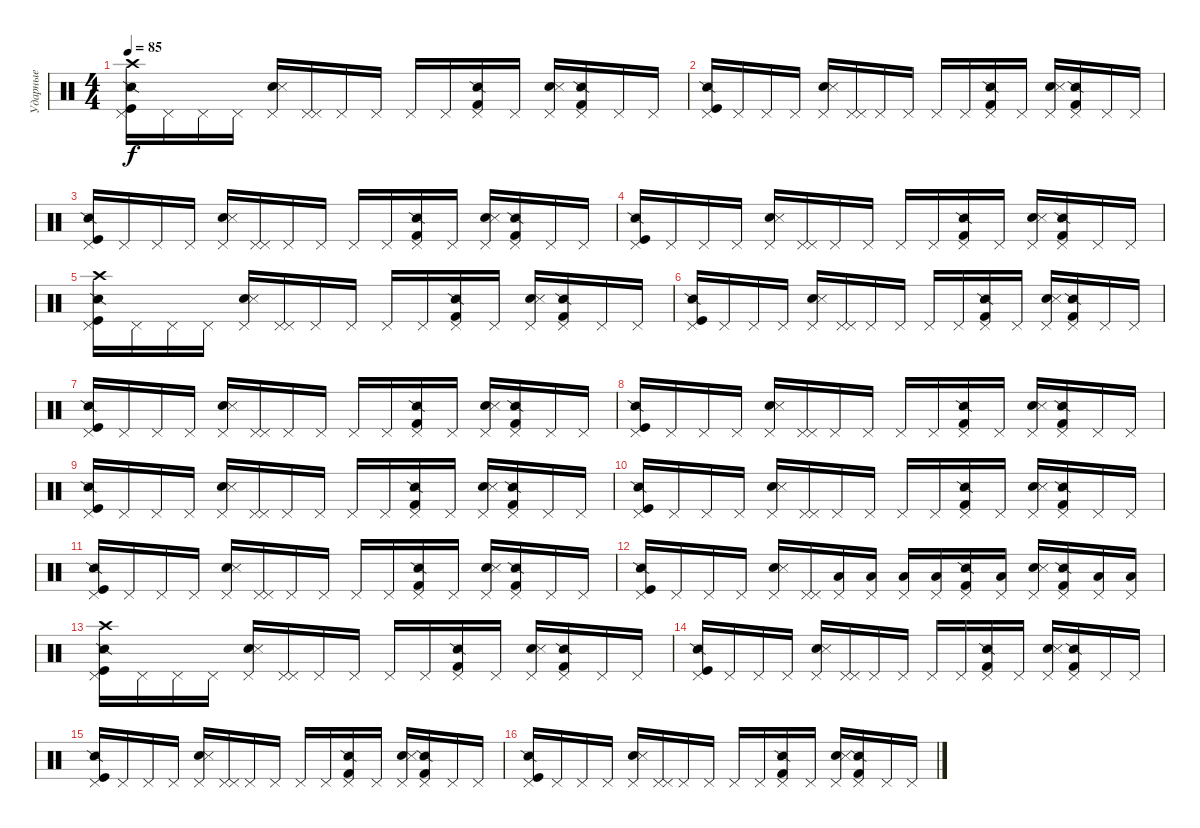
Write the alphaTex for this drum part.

\track ("Ударные" "Ударные") {instrument percussion}
\staff {score}
\articulation defaults
\ts (4 4)
\tempo 85
\clef neutral
\ks c
("Crash high (hit)" "Kick (hit)" "Pedal Hi-Hat (hit)" "Snare (side stick) 2").16{dy f} "Pedal Hi-Hat (hit)".16 "Pedal Hi-Hat (hit)".16 "Pedal Hi-Hat (hit)".16 ("Snare (hit) 2" "Pedal Hi-Hat (hit)" "Snare (side stick) 3").16 ("Pedal Hi-Hat (hit)" "Pedal Hi-Hat (hit)").16 "Pedal Hi-Hat (hit)".16 "Pedal Hi-Hat (hit)".16 "Pedal Hi-Hat (hit)".16 "Pedal Hi-Hat (hit)".16 ("Kick (hit) 2" "Pedal Hi-Hat (hit)" "Snare (side stick) 2").16 "Pedal Hi-Hat (hit)".16 ("Snare (hit) 2" "Pedal Hi-Hat (hit)" "Snare (side stick) 3").16 ("Kick (hit) 2" "Pedal Hi-Hat (hit)" "Snare (side stick) 2").16 "Pedal Hi-Hat (hit)".16 "Pedal Hi-Hat (hit)".16 |
("Kick (hit)" "Pedal Hi-Hat (hit)" "Snare (side stick) 2").16 "Pedal Hi-Hat (hit)".16 "Pedal Hi-Hat (hit)".16 "Pedal Hi-Hat (hit)".16 ("Snare (hit) 2" "Pedal Hi-Hat (hit)" "Snare (side stick) 3").16 ("Pedal Hi-Hat (hit)" "Pedal Hi-Hat (hit)").16 "Pedal Hi-Hat (hit)".16 "Pedal Hi-Hat (hit)".16 "Pedal Hi-Hat (hit)".16 "Pedal Hi-Hat (hit)".16 ("Kick (hit) 2" "Pedal Hi-Hat (hit)" "Snare (side stick) 2").16 "Pedal Hi-Hat (hit)".16 ("Snare (hit) 2" "Pedal Hi-Hat (hit)" "Snare (side stick) 3").16 ("Kick (hit) 2" "Pedal Hi-Hat (hit)" "Snare (side stick) 2").16 "Pedal Hi-Hat (hit)".16 "Pedal Hi-Hat (hit)".16 |
("Kick (hit)" "Pedal Hi-Hat (hit)" "Snare (side stick) 2").16 "Pedal Hi-Hat (hit)".16 "Pedal Hi-Hat (hit)".16 "Pedal Hi-Hat (hit)".16 ("Snare (hit) 2" "Pedal Hi-Hat (hit)" "Snare (side stick) 3").16 ("Pedal Hi-Hat (hit)" "Pedal Hi-Hat (hit)").16 "Pedal Hi-Hat (hit)".16 "Pedal Hi-Hat (hit)".16 "Pedal Hi-Hat (hit)".16 "Pedal Hi-Hat (hit)".16 ("Kick (hit) 2" "Pedal Hi-Hat (hit)" "Snare (side stick) 2").16 "Pedal Hi-Hat (hit)".16 ("Snare (hit) 2" "Pedal Hi-Hat (hit)" "Snare (side stick) 3").16 ("Kick (hit) 2" "Pedal Hi-Hat (hit)" "Snare (side stick) 2").16 "Pedal Hi-Hat (hit)".16 "Pedal Hi-Hat (hit)".16 |
("Kick (hit)" "Pedal Hi-Hat (hit)" "Snare (side stick) 2").16 "Pedal Hi-Hat (hit)".16 "Pedal Hi-Hat (hit)".16 "Pedal Hi-Hat (hit)".16 ("Snare (hit) 2" "Pedal Hi-Hat (hit)" "Snare (side stick) 3").16 ("Pedal Hi-Hat (hit)" "Pedal Hi-Hat (hit)").16 "Pedal Hi-Hat (hit)".16 "Pedal Hi-Hat (hit)".16 "Pedal Hi-Hat (hit)".16 "Pedal Hi-Hat (hit)".16 ("Kick (hit) 2" "Pedal Hi-Hat (hit)" "Snare (side stick) 2").16 "Pedal Hi-Hat (hit)".16 ("Snare (hit) 2" "Pedal Hi-Hat (hit)" "Snare (side stick) 3").16 ("Kick (hit) 2" "Pedal Hi-Hat (hit)" "Snare (side stick) 2").16 "Pedal Hi-Hat (hit)".16 "Pedal Hi-Hat (hit)".16 |
("Crash high (hit)" "Kick (hit)" "Pedal Hi-Hat (hit)" "Snare (side stick) 2").16 "Pedal Hi-Hat (hit)".16 "Pedal Hi-Hat (hit)".16 "Pedal Hi-Hat (hit)".16 ("Snare (hit) 2" "Pedal Hi-Hat (hit)" "Snare (side stick) 3").16 ("Pedal Hi-Hat (hit)" "Pedal Hi-Hat (hit)").16 "Pedal Hi-Hat (hit)".16 "Pedal Hi-Hat (hit)".16 "Pedal Hi-Hat (hit)".16 "Pedal Hi-Hat (hit)".16 ("Kick (hit) 2" "Pedal Hi-Hat (hit)" "Snare (side stick) 2").16 "Pedal Hi-Hat (hit)".16 ("Snare (hit) 2" "Pedal Hi-Hat (hit)" "Snare (side stick) 3").16 ("Kick (hit) 2" "Pedal Hi-Hat (hit)" "Snare (side stick) 2").16 "Pedal Hi-Hat (hit)".16 "Pedal Hi-Hat (hit)".16 |
("Kick (hit)" "Pedal Hi-Hat (hit)" "Snare (side stick) 2").16 "Pedal Hi-Hat (hit)".16 "Pedal Hi-Hat (hit)".16 "Pedal Hi-Hat (hit)".16 ("Snare (hit) 2" "Pedal Hi-Hat (hit)" "Snare (side stick) 3").16 ("Pedal Hi-Hat (hit)" "Pedal Hi-Hat (hit)").16 "Pedal Hi-Hat (hit)".16 "Pedal Hi-Hat (hit)".16 "Pedal Hi-Hat (hit)".16 "Pedal Hi-Hat (hit)".16 ("Kick (hit) 2" "Pedal Hi-Hat (hit)" "Snare (side stick) 2").16 "Pedal Hi-Hat (hit)".16 ("Snare (hit) 2" "Pedal Hi-Hat (hit)" "Snare (side stick) 3").16 ("Kick (hit) 2" "Pedal Hi-Hat (hit)" "Snare (side stick) 2").16 "Pedal Hi-Hat (hit)".16 "Pedal Hi-Hat (hit)".16 |
("Kick (hit)" "Pedal Hi-Hat (hit)" "Snare (side stick) 2").16 "Pedal Hi-Hat (hit)".16 "Pedal Hi-Hat (hit)".16 "Pedal Hi-Hat (hit)".16 ("Snare (hit) 2" "Pedal Hi-Hat (hit)" "Snare (side stick) 3").16 ("Pedal Hi-Hat (hit)" "Pedal Hi-Hat (hit)").16 "Pedal Hi-Hat (hit)".16 "Pedal Hi-Hat (hit)".16 "Pedal Hi-Hat (hit)".16 "Pedal Hi-Hat (hit)".16 ("Kick (hit) 2" "Pedal Hi-Hat (hit)" "Snare (side stick) 2").16 "Pedal Hi-Hat (hit)".16 ("Snare (hit) 2" "Pedal Hi-Hat (hit)" "Snare (side stick) 3").16 ("Kick (hit) 2" "Pedal Hi-Hat (hit)" "Snare (side stick) 2").16 "Pedal Hi-Hat (hit)".16 "Pedal Hi-Hat (hit)".16 |
("Kick (hit)" "Pedal Hi-Hat (hit)" "Snare (side stick) 2").16 "Pedal Hi-Hat (hit)".16 "Pedal Hi-Hat (hit)".16 "Pedal Hi-Hat (hit)".16 ("Snare (hit) 2" "Pedal Hi-Hat (hit)" "Snare (side stick) 3").16 ("Pedal Hi-Hat (hit)" "Pedal Hi-Hat (hit)").16 "Pedal Hi-Hat (hit)".16 "Pedal Hi-Hat (hit)".16 "Pedal Hi-Hat (hit)".16 "Pedal Hi-Hat (hit)".16 ("Kick (hit) 2" "Pedal Hi-Hat (hit)" "Snare (side stick) 2").16 "Pedal Hi-Hat (hit)".16 ("Snare (hit) 2" "Pedal Hi-Hat (hit)" "Snare (side stick) 3").16 ("Kick (hit) 2" "Pedal Hi-Hat (hit)" "Snare (side stick) 2").16 "Pedal Hi-Hat (hit)".16 "Pedal Hi-Hat (hit)".16 |
("Kick (hit)" "Pedal Hi-Hat (hit)" "Snare (side stick) 2").16 "Pedal Hi-Hat (hit)".16 "Pedal Hi-Hat (hit)".16 "Pedal Hi-Hat (hit)".16 ("Snare (hit) 2" "Pedal Hi-Hat (hit)" "Snare (side stick) 3").16 ("Pedal Hi-Hat (hit)" "Pedal Hi-Hat (hit)").16 "Pedal Hi-Hat (hit)".16 "Pedal Hi-Hat (hit)".16 "Pedal Hi-Hat (hit)".16 "Pedal Hi-Hat (hit)".16 ("Kick (hit) 2" "Pedal Hi-Hat (hit)" "Snare (side stick) 2").16 "Pedal Hi-Hat (hit)".16 ("Snare (hit) 2" "Pedal Hi-Hat (hit)" "Snare (side stick) 3").16 ("Kick (hit) 2" "Pedal Hi-Hat (hit)" "Snare (side stick) 2").16 "Pedal Hi-Hat (hit)".16 "Pedal Hi-Hat (hit)".16 |
("Kick (hit)" "Pedal Hi-Hat (hit)" "Snare (side stick) 2").16 "Pedal Hi-Hat (hit)".16 "Pedal Hi-Hat (hit)".16 "Pedal Hi-Hat (hit)".16 ("Snare (hit) 2" "Pedal Hi-Hat (hit)" "Snare (side stick) 3").16 ("Pedal Hi-Hat (hit)" "Pedal Hi-Hat (hit)").16 "Pedal Hi-Hat (hit)".16 "Pedal Hi-Hat (hit)".16 "Pedal Hi-Hat (hit)".16 "Pedal Hi-Hat (hit)".16 ("Kick (hit) 2" "Pedal Hi-Hat (hit)" "Snare (side stick) 2").16 "Pedal Hi-Hat (hit)".16 ("Snare (hit) 2" "Pedal Hi-Hat (hit)" "Snare (side stick) 3").16 ("Kick (hit) 2" "Pedal Hi-Hat (hit)" "Snare (side stick) 2").16 "Pedal Hi-Hat (hit)".16 "Pedal Hi-Hat (hit)".16 |
("Kick (hit)" "Pedal Hi-Hat (hit)" "Snare (side stick) 2").16 "Pedal Hi-Hat (hit)".16 "Pedal Hi-Hat (hit)".16 "Pedal Hi-Hat (hit)".16 ("Snare (hit) 2" "Pedal Hi-Hat (hit)" "Snare (side stick) 3").16 ("Pedal Hi-Hat (hit)" "Pedal Hi-Hat (hit)").16 "Pedal Hi-Hat (hit)".16 "Pedal Hi-Hat (hit)".16 "Pedal Hi-Hat (hit)".16 "Pedal Hi-Hat (hit)".16 ("Kick (hit) 2" "Pedal Hi-Hat (hit)" "Snare (side stick) 2").16 "Pedal Hi-Hat (hit)".16 ("Snare (hit) 2" "Pedal Hi-Hat (hit)" "Snare (side stick) 3").16 ("Kick (hit) 2" "Pedal Hi-Hat (hit)" "Snare (side stick) 2").16 "Pedal Hi-Hat (hit)".16 "Pedal Hi-Hat (hit)".16 |
("Kick (hit)" "Pedal Hi-Hat (hit)" "Snare (side stick) 2").16 "Pedal Hi-Hat (hit)".16 "Pedal Hi-Hat (hit)".16 "Pedal Hi-Hat (hit)".16 ("Snare (hit) 2" "Pedal Hi-Hat (hit)" "Snare (side stick) 3").16 ("Pedal Hi-Hat (hit)" "Pedal Hi-Hat (hit)").16 ("Low Tom (hit)" "Pedal Hi-Hat (hit)").16 ("Low Tom (hit)" "Pedal Hi-Hat (hit)").16 ("Low Tom (hit)" "Pedal Hi-Hat (hit)").16 ("Low Tom (hit)" "Pedal Hi-Hat (hit)").16 ("Kick (hit) 2" "Pedal Hi-Hat (hit)" "Snare (side stick) 2").16 ("Low Tom (hit)" "Pedal Hi-Hat (hit)").16 ("Snare (hit) 2" "Pedal Hi-Hat (hit)" "Snare (side stick) 3").16 ("Kick (hit) 2" "Pedal Hi-Hat (hit)" "Snare (side stick) 2").16 ("Low Tom (hit)" "Pedal Hi-Hat (hit)").16 ("Low Tom (hit)" "Pedal Hi-Hat (hit)").16 |
("Crash high (hit)" "Kick (hit)" "Pedal Hi-Hat (hit)" "Snare (side stick) 2").16 "Pedal Hi-Hat (hit)".16 "Pedal Hi-Hat (hit)".16 "Pedal Hi-Hat (hit)".16 ("Snare (hit) 2" "Pedal Hi-Hat (hit)" "Snare (side stick) 3").16 ("Pedal Hi-Hat (hit)" "Pedal Hi-Hat (hit)").16 "Pedal Hi-Hat (hit)".16 "Pedal Hi-Hat (hit)".16 "Pedal Hi-Hat (hit)".16 "Pedal Hi-Hat (hit)".16 ("Kick (hit) 2" "Pedal Hi-Hat (hit)" "Snare (side stick) 2").16 "Pedal Hi-Hat (hit)".16 ("Snare (hit) 2" "Pedal Hi-Hat (hit)" "Snare (side stick) 3").16 ("Kick (hit) 2" "Pedal Hi-Hat (hit)" "Snare (side stick) 2").16 "Pedal Hi-Hat (hit)".16 "Pedal Hi-Hat (hit)".16 |
("Kick (hit)" "Pedal Hi-Hat (hit)" "Snare (side stick) 2").16 "Pedal Hi-Hat (hit)".16 "Pedal Hi-Hat (hit)".16 "Pedal Hi-Hat (hit)".16 ("Snare (hit) 2" "Pedal Hi-Hat (hit)" "Snare (side stick) 3").16 ("Pedal Hi-Hat (hit)" "Pedal Hi-Hat (hit)").16 "Pedal Hi-Hat (hit)".16 "Pedal Hi-Hat (hit)".16 "Pedal Hi-Hat (hit)".16 "Pedal Hi-Hat (hit)".16 ("Kick (hit) 2" "Pedal Hi-Hat (hit)" "Snare (side stick) 2").16 "Pedal Hi-Hat (hit)".16 ("Snare (hit) 2" "Pedal Hi-Hat (hit)" "Snare (side stick) 3").16 ("Kick (hit) 2" "Pedal Hi-Hat (hit)" "Snare (side stick) 2").16 "Pedal Hi-Hat (hit)".16 "Pedal Hi-Hat (hit)".16 |
("Kick (hit)" "Pedal Hi-Hat (hit)" "Snare (side stick) 2").16 "Pedal Hi-Hat (hit)".16 "Pedal Hi-Hat (hit)".16 "Pedal Hi-Hat (hit)".16 ("Snare (hit) 2" "Pedal Hi-Hat (hit)" "Snare (side stick) 3").16 ("Pedal Hi-Hat (hit)" "Pedal Hi-Hat (hit)").16 "Pedal Hi-Hat (hit)".16 "Pedal Hi-Hat (hit)".16 "Pedal Hi-Hat (hit)".16 "Pedal Hi-Hat (hit)".16 ("Kick (hit) 2" "Pedal Hi-Hat (hit)" "Snare (side stick) 2").16 "Pedal Hi-Hat (hit)".16 ("Snare (hit) 2" "Pedal Hi-Hat (hit)" "Snare (side stick) 3").16 ("Kick (hit) 2" "Pedal Hi-Hat (hit)" "Snare (side stick) 2").16 "Pedal Hi-Hat (hit)".16 "Pedal Hi-Hat (hit)".16 |
("Kick (hit)" "Pedal Hi-Hat (hit)" "Snare (side stick) 2").16 "Pedal Hi-Hat (hit)".16 "Pedal Hi-Hat (hit)".16 "Pedal Hi-Hat (hit)".16 ("Snare (hit) 2" "Pedal Hi-Hat (hit)" "Snare (side stick) 3").16 ("Pedal Hi-Hat (hit)" "Pedal Hi-Hat (hit)").16 "Pedal Hi-Hat (hit)".16 "Pedal Hi-Hat (hit)".16 "Pedal Hi-Hat (hit)".16 "Pedal Hi-Hat (hit)".16 ("Kick (hit) 2" "Pedal Hi-Hat (hit)" "Snare (side stick) 2").16 "Pedal Hi-Hat (hit)".16 ("Snare (hit) 2" "Pedal Hi-Hat (hit)" "Snare (side stick) 3").16 ("Kick (hit) 2" "Pedal Hi-Hat (hit)" "Snare (side stick) 2").16 "Pedal Hi-Hat (hit)".16 "Pedal Hi-Hat (hit)".16
